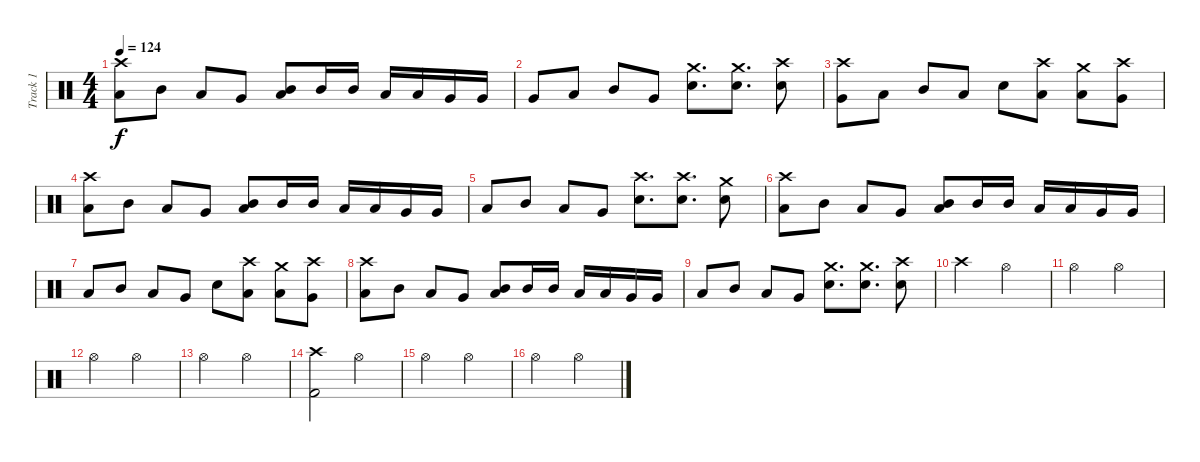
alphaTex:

\track ("Track 1" "Track 1") {instrument percussion}
\staff {score}
\articulation defaults
\ts (4 4)
\tempo 124
\clef neutral
\ks c
("Crash high (hit)" "Low Tom (hit)").8{dy f} "Mid Tom (hit)".8 "Low Tom (hit)".8 "Very Low Tom (hit)".8 ("Mid Tom (hit)" "Low Tom (hit)").8 "Mid Tom (hit)".16 "Mid Tom (hit)".16 "Low Tom (hit)".16 "Low Tom (hit)".16 "Very Low Tom (hit)".16 "Very Low Tom (hit)".16 |
"Very Low Tom (hit)".8 "Low Tom (hit)".8 "Mid Tom (hit)".8 "Very Low Tom (hit)".8 ("Crash medium (hit)" "Electric Snare (hit)").8{d} ("Crash medium (hit)" "Electric Snare (hit)").8{d} ("Crash high (hit)" "Electric Snare (hit)").8 |
("Crash high (hit)" "Very Low Tom (hit)").8 "Low Tom (hit)".8 "Mid Tom (hit)".8 "Low Tom (hit)".8 "Electric Snare (hit)".8 ("Crash high (hit)" "Low Tom (hit)").8 ("Crash medium (hit)" "Low Tom (hit)").8 ("Crash high (hit)" "Very Low Tom (hit)").8 |
("Crash high (hit)" "Low Tom (hit)").8 "Mid Tom (hit)".8 "Low Tom (hit)".8 "Very Low Tom (hit)".8 ("Mid Tom (hit)" "Low Tom (hit)").8 "Mid Tom (hit)".16 "Mid Tom (hit)".16 "Low Tom (hit)".16 "Low Tom (hit)".16 "Very Low Tom (hit)".16 "Very Low Tom (hit)".16 |
"Low Tom (hit)".8 "Mid Tom (hit)".8 "Low Tom (hit)".8 "Very Low Tom (hit)".8 ("Crash high (hit)" "Electric Snare (hit)").8{d} ("Crash high (hit)" "Electric Snare (hit)").8{d} ("Crash medium (hit)" "Electric Snare (hit)").8 |
("Crash high (hit)" "Low Tom (hit)").8 "Mid Tom (hit)".8 "Low Tom (hit)".8 "Very Low Tom (hit)".8 ("Mid Tom (hit)" "Low Tom (hit)").8 "Mid Tom (hit)".16 "Mid Tom (hit)".16 "Low Tom (hit)".16 "Low Tom (hit)".16 "Very Low Tom (hit)".16 "Very Low Tom (hit)".16 |
"Low Tom (hit)".8 "Mid Tom (hit)".8 "Low Tom (hit)".8 "Very Low Tom (hit)".8 "Electric Snare (hit)".8 ("Crash high (hit)" "Low Tom (hit)").8 ("Crash medium (hit)" "Low Tom (hit)").8 ("Crash high (hit)" "Very Low Tom (hit)").8 |
("Crash high (hit)" "Low Tom (hit)").8 "Mid Tom (hit)".8 "Low Tom (hit)".8 "Very Low Tom (hit)".8 ("Mid Tom (hit)" "Low Tom (hit)").8 "Mid Tom (hit)".16 "Mid Tom (hit)".16 "Low Tom (hit)".16 "Low Tom (hit)".16 "Very Low Tom (hit)".16 "Very Low Tom (hit)".16 |
"Low Tom (hit)".8 "Mid Tom (hit)".8 "Low Tom (hit)".8 "Very Low Tom (hit)".8 ("Crash medium (hit)" "Electric Snare (hit)").8{d} ("Crash medium (hit)" "Electric Snare (hit)").8{d} ("Crash high (hit)" "Electric Snare (hit)").8 |
"Crash high (hit)".2 "Hi-Hat (open)".2 |
"Hi-Hat (open)".2 "Hi-Hat (open)".2 |
"Hi-Hat (open)".2 "Hi-Hat (open)".2 |
"Hi-Hat (open)".2 "Hi-Hat (open)".2 |
("Crash high (hit)" "Kick (hit) 2").2 "Hi-Hat (open)".2 |
"Hi-Hat (open)".2 "Hi-Hat (open)".2 |
"Hi-Hat (open)".2 "Hi-Hat (open)".2
